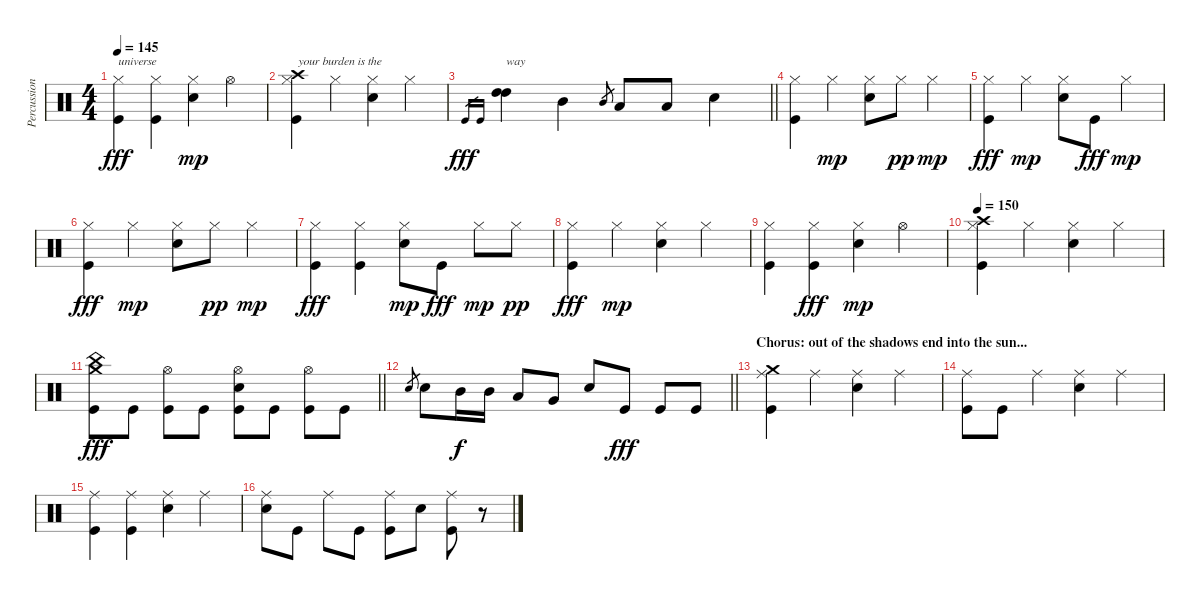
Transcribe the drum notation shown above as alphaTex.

\track ("Percussioni" "Percussion") {instrument percussion}
\staff {score}
\articulation defaults
\ts (4 4)
\tempo 145
\clef neutral
\ks c
("Hi-Hat (closed)" "Kick (hit)").4{txt "universe" dy fff} ("Hi-Hat (closed)" "Kick (hit)").4 ("Hi-Hat (closed)" "Snare (hit) 2").4{dy mp} "Hi-Hat (open)".4 |
("Crash high (hit)" "Hi-Hat (closed)" "Kick (hit)").4{txt "your burden is the"} "Hi-Hat (closed)".4 ("Hi-Hat (closed)" "Snare (hit) 2").4 "Hi-Hat (closed)".4 |
\barLineRight lightlight "Kick (hit)".16{gr dy fff} "Kick (hit)".16{gr}
("High Tom (hit)" "High Tom (hit)").4{txt "way"} "Mid Tom (hit)".4 "Mid Tom (hit)".8{gr} "Low Tom (hit)".8 "Low Tom (hit)".8 "Snare (hit) 2".4 |
("Hi-Hat (closed)" "Kick (hit)").4 "Hi-Hat (closed)".4{dy mp} ("Hi-Hat (closed)" "Snare (hit) 2").8 "Hi-Hat (closed)".8{dy pp} "Hi-Hat (closed)".4{dy mp} |
("Hi-Hat (closed)" "Kick (hit)").4{dy fff} "Hi-Hat (closed)".4{dy mp} ("Hi-Hat (closed)" "Snare (hit) 2").8 "Kick (hit)".8{dy fff} "Hi-Hat (closed)".4{dy mp} |
("Hi-Hat (closed)" "Kick (hit)").4{dy fff} "Hi-Hat (closed)".4{dy mp} ("Hi-Hat (closed)" "Snare (hit) 2").8 "Hi-Hat (closed)".8{dy pp} "Hi-Hat (closed)".4{dy mp} |
("Hi-Hat (closed)" "Kick (hit)").4{dy fff} ("Hi-Hat (closed)" "Kick (hit)").4 ("Hi-Hat (closed)" "Snare (hit) 2").8{dy mp} "Kick (hit)".8{dy fff} "Hi-Hat (closed)".8{dy mp} "Hi-Hat (closed)".8{dy pp} |
("Hi-Hat (closed)" "Kick (hit)").4{dy fff} "Hi-Hat (closed)".4{dy mp} ("Hi-Hat (closed)" "Snare (hit) 2").4 "Hi-Hat (closed)".4 |
("Hi-Hat (closed)" "Kick (hit)").4 ("Hi-Hat (closed)" "Kick (hit)").4{dy fff} ("Hi-Hat (closed)" "Snare (hit) 2").4{dy mp} "Hi-Hat (open)".4 |
\tempo 150
("Crash high (hit)" "Hi-Hat (closed)" "Kick (hit)").4 "Hi-Hat (closed)".4 ("Hi-Hat (closed)" "Snare (hit) 2").4 "Hi-Hat (closed)".4 |
\barLineRight lightlight
("Crash medium (hit)" "China (hit)" "Kick (hit)").8{dy fff} "Kick (hit)".8 ("Hi-Hat (open)" "Kick (hit)").8 "Kick (hit)".8 ("Hi-Hat (open)" "Snare (hit) 2" "Kick (hit)").8 "Kick (hit)".8 ("Hi-Hat (open)" "Kick (hit)").8 "Kick (hit)".8 |
\barLineRight lightlight "Snare (hit) 2".8{gr} "Snare (hit) 2".8 "Mid Tom (hit)".16{dy f} "Mid Tom (hit)".16 "Low Tom (hit)".8 "Very Low Tom (hit)".8 "Snare (hit) 2".8 "Kick (hit)".8{dy fff} "Kick (hit)".8 "Kick (hit)".8
|
\section ("" "Chorus: out of the shadows end into the sun...")
("Crash medium (hit)" "Ride (middle)" "Kick (hit)").4 "Ride (middle)".4 ("Ride (middle)" "Snare (hit) 2").4 "Ride (middle)".4 |
("Ride (middle)" "Kick (hit)").8 "Kick (hit)".8 "Ride (middle)".4 ("Ride (middle)" "Snare (hit) 2").4 "Ride (middle)".4 |
("Ride (middle)" "Kick (hit)").4 ("Ride (middle)" "Kick (hit)").4 ("Ride (middle)" "Snare (hit) 2").4 "Ride (middle)".4 |
("Ride (middle)" "Snare (hit) 2").8 "Kick (hit)".8 "Ride (middle)".8 "Kick (hit)".8 ("Ride (middle)" "Kick (hit)").8 "Snare (hit) 2".8 ("Ride (middle)" "Kick (hit)").8 r.8
